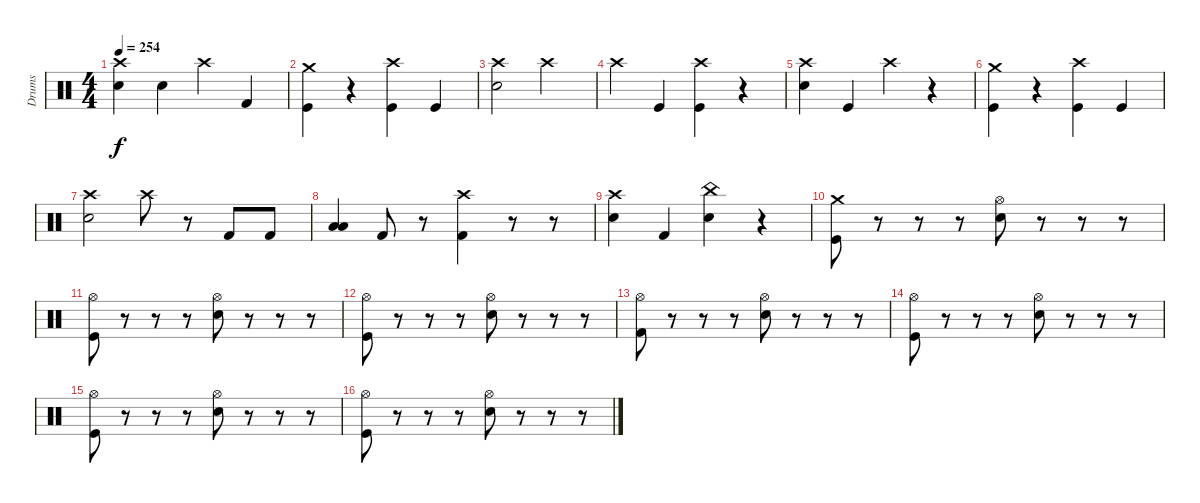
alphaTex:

\track ("Drums" "Drums") {instrument percussion}
\staff {score}
\articulation defaults
\ts (4 4)
\tempo 254
\clef neutral
\ks c
("Crash high (hit)" "Electric Snare (hit)").4{dy f} "Electric Snare (hit)".4 "Crash high (hit)".4 "Kick (hit) 2".4 |
("Crash medium (hit)" "Kick (hit)").4 r.4 ("Crash high (hit)" "Kick (hit)").4 "Kick (hit)".4 |
("Crash high (hit)" "Electric Snare (hit)").2 "Crash high (hit)".2 |
"Crash high (hit)".4 "Kick (hit)".4 ("Crash high (hit)" "Kick (hit)").4 r.4 |
("Crash high (hit)" "Electric Snare (hit)").4 "Kick (hit)".4 "Crash high (hit)".4 r.4 |
("Crash medium (hit)" "Kick (hit)").4 r.4 ("Crash high (hit)" "Kick (hit)").4 "Kick (hit)".4 |
("Crash high (hit)" "Electric Snare (hit)").2 "Crash high (hit)".8 r.8 "Kick (hit) 2".8 "Kick (hit) 2".8 |
("Low Tom (hit)" "Low Tom (hit)").4{bu 60} "Kick (hit) 2".8 r.8 ("Crash high (hit)" "Kick (hit) 2").4 r.8 r.8 |
("Crash high (hit)" "Electric Snare (hit)").4 "Kick (hit) 2".4 ("China (hit)" "Electric Snare (hit)").4 r.4 |
("Crash medium (hit)" "Kick (hit)").8 r.8 r.8 r.8 ("Hi-Hat (open)" "Electric Snare (hit)").8 r.8 r.8 r.8 |
("Hi-Hat (open)" "Kick (hit)").8 r.8 r.8 r.8 ("Hi-Hat (open)" "Electric Snare (hit)").8 r.8 r.8 r.8 |
("Hi-Hat (open)" "Kick (hit)").8 r.8 r.8 r.8 ("Hi-Hat (open)" "Electric Snare (hit)").8 r.8 r.8 r.8 |
("Hi-Hat (open)" "Kick (hit) 2").8 r.8 r.8 r.8 ("Hi-Hat (open)" "Electric Snare (hit)").8 r.8 r.8 r.8 |
("Hi-Hat (open)" "Kick (hit)").8 r.8 r.8 r.8 ("Hi-Hat (open)" "Electric Snare (hit)").8 r.8 r.8 r.8 |
("Hi-Hat (open)" "Kick (hit)").8 r.8 r.8 r.8 ("Hi-Hat (open)" "Electric Snare (hit)").8 r.8 r.8 r.8 |
("Hi-Hat (open)" "Kick (hit)").8 r.8 r.8 r.8 ("Hi-Hat (open)" "Electric Snare (hit)").8 r.8 r.8 r.8
